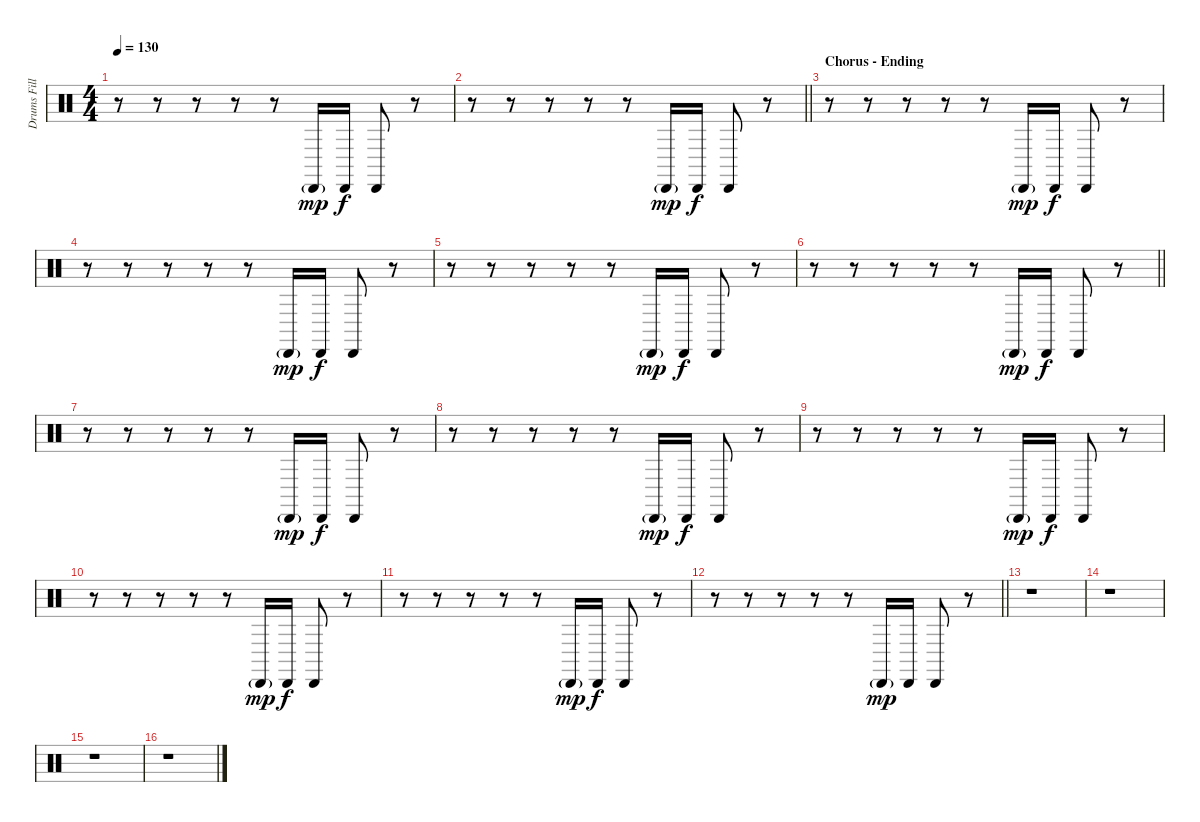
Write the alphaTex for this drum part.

\track ("Drums Fill" "Drums Fill") {instrument percussion}
\staff {score}
\articulation defaults
\ts (4 4)
\tempo 130
\clef neutral
\ks c
r.8{dy f} r.8 r.8 r.8 r.8 "Cabasa (hit)"{g}.16{dy mp} "Cabasa (hit)".16{dy f} "Cabasa (hit)".8 r.8 |
\barLineRight lightlight
r.8 r.8 r.8 r.8 r.8 "Cabasa (hit)"{g}.16{dy mp} "Cabasa (hit)".16{dy f} "Cabasa (hit)".8 r.8 |
\section ("" "Chorus - Ending")
r.8 r.8 r.8 r.8 r.8 "Cabasa (hit)"{g}.16{dy mp} "Cabasa (hit)".16{dy f} "Cabasa (hit)".8 r.8 |
r.8 r.8 r.8 r.8 r.8 "Cabasa (hit)"{g}.16{dy mp} "Cabasa (hit)".16{dy f} "Cabasa (hit)".8 r.8 |
r.8 r.8 r.8 r.8 r.8 "Cabasa (hit)"{g}.16{dy mp} "Cabasa (hit)".16{dy f} "Cabasa (hit)".8 r.8 |
\barLineRight lightlight
r.8 r.8 r.8 r.8 r.8 "Cabasa (hit)"{g}.16{dy mp} "Cabasa (hit)".16{dy f} "Cabasa (hit)".8 r.8 |
r.8 r.8 r.8 r.8 r.8 "Cabasa (hit)"{g}.16{dy mp} "Cabasa (hit)".16{dy f} "Cabasa (hit)".8 r.8 |
r.8 r.8 r.8 r.8 r.8 "Cabasa (hit)"{g}.16{dy mp} "Cabasa (hit)".16{dy f} "Cabasa (hit)".8 r.8 |
r.8 r.8 r.8 r.8 r.8 "Cabasa (hit)"{g}.16{dy mp} "Cabasa (hit)".16{dy f} "Cabasa (hit)".8 r.8 |
r.8 r.8 r.8 r.8 r.8 "Cabasa (hit)"{g}.16{dy mp} "Cabasa (hit)".16{dy f} "Cabasa (hit)".8 r.8 |
r.8 r.8 r.8 r.8 r.8 "Cabasa (hit)"{g}.16{dy mp} "Cabasa (hit)".16{dy f} "Cabasa (hit)".8 r.8 |
\barLineRight lightlight
r.8 r.8 r.8 r.8 r.8 "Cabasa (hit)"{g}.16{dy mp} "Cabasa (hit)".16 "Cabasa (hit)".8 r.8 |
r.1 |
r.1 |
r.1 |
r.1
